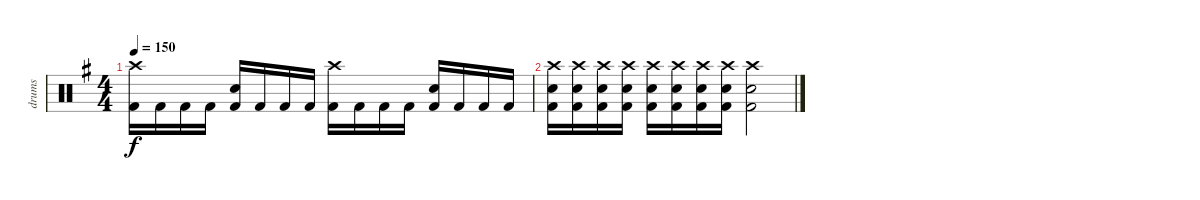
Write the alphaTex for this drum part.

\track ("drums" "drums") {instrument percussion}
\staff {score}
\articulation defaults
\ts (4 4)
\tempo 150
\clef neutral
\ks g
("Crash high (hit)" "Kick (hit) 2").16{dy f} "Kick (hit) 2".16 "Kick (hit) 2".16 "Kick (hit) 2".16 ("Electric Snare (hit)" "Kick (hit) 2").16 "Kick (hit) 2".16 "Kick (hit) 2".16 "Kick (hit) 2".16 ("Crash high (hit)" "Kick (hit) 2").16 "Kick (hit) 2".16 "Kick (hit) 2".16 "Kick (hit) 2".16 ("Electric Snare (hit)" "Kick (hit) 2").16 "Kick (hit) 2".16 "Kick (hit) 2".16 "Kick (hit) 2".16 |
("Crash high (hit)" "Electric Snare (hit)" "Kick (hit) 2").16 ("Crash high (hit)" "Electric Snare (hit)" "Kick (hit) 2").16 ("Crash high (hit)" "Electric Snare (hit)" "Kick (hit) 2").16 ("Crash high (hit)" "Electric Snare (hit)" "Kick (hit) 2").16 ("Crash high (hit)" "Electric Snare (hit)" "Kick (hit) 2").16 ("Crash high (hit)" "Electric Snare (hit)" "Kick (hit) 2").16 ("Crash high (hit)" "Electric Snare (hit)" "Kick (hit) 2").16 ("Crash high (hit)" "Electric Snare (hit)" "Kick (hit) 2").16 ("Crash high (hit)" "Electric Snare (hit)" "Kick (hit) 2").2
